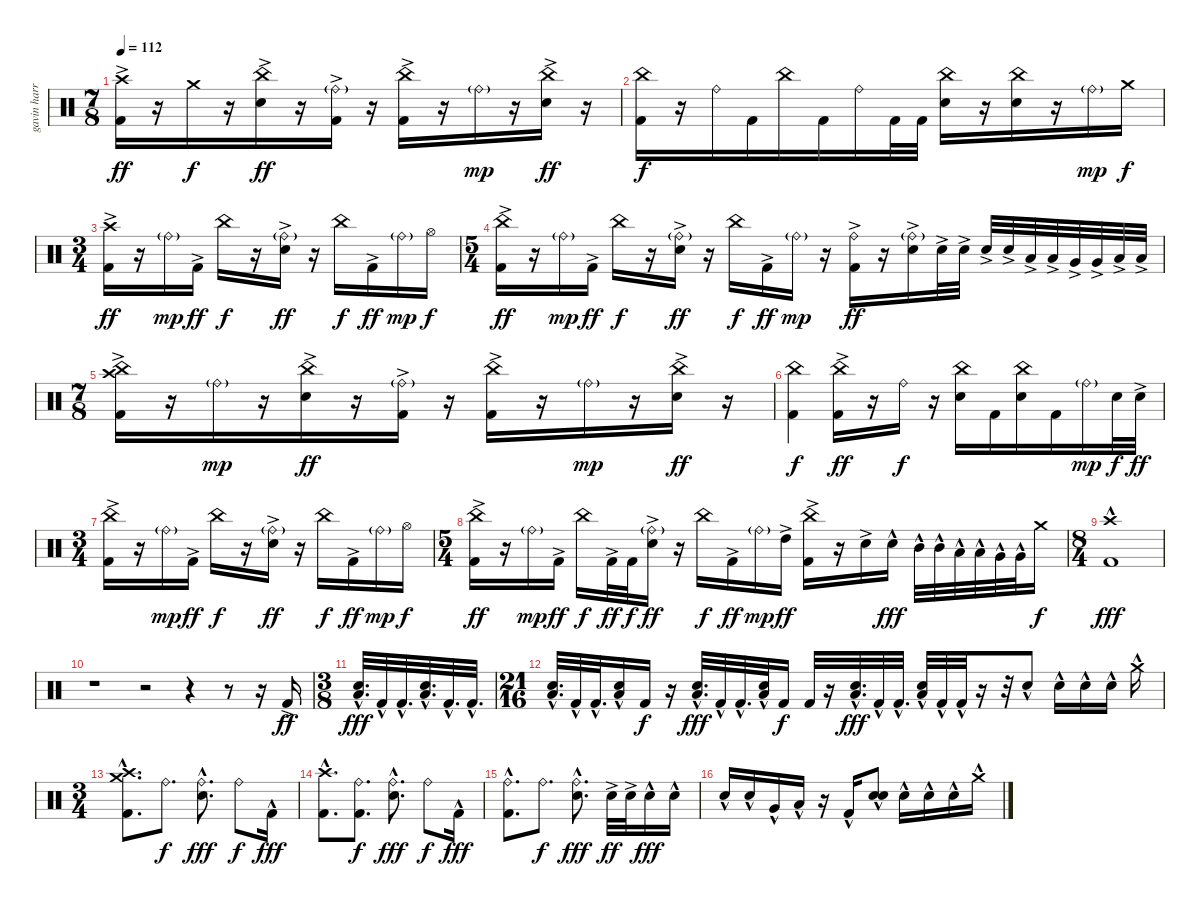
\track ("gavin harrison" "gavin harr") {instrument percussion}
\staff {score}
\articulation defaults
\ts (7 8)
\tempo 112
\clef neutral
\ks c
("Crash high (hit)" "Kick (hit) 2"{ac}).16{dy ff} r.16 "Crash medium (hit)".16{dy f} r.16 ("China (hit)" "Electric Snare (hit)"{ac}).16{dy ff} r.16 ("Ride (bell)"{g} "Kick (hit) 2"{ac}).16 r.16 ("China (hit)" "Kick (hit) 2"{ac}).16 r.16 "Ride (bell)"{g}.16{dy mp} r.16 ("China (hit)" "Electric Snare (hit)"{ac}).16{dy ff} r.16 |
("China (hit)" "Kick (hit) 2").16{dy f} r.16 "Ride (bell)".16 "Kick (hit) 2".16 "China (hit)".16 "Kick (hit) 2".16 "Ride (bell)".16 "Kick (hit) 2".32 "Kick (hit) 2".32 ("China (hit)" "Electric Snare (hit)").16 r.16 ("China (hit)" "Electric Snare (hit)").16 r.16 "Ride (bell)"{g}.16{dy mp} "Crash medium (hit)".16{dy f} |
\ts (3 4)
("Crash high (hit)" "Kick (hit) 2"{ac}).16{dy ff} r.16 "Ride (bell)"{g}.16{dy mp} "Kick (hit) 2"{ac}.16{dy ff} "China (hit)".16{dy f} r.16 ("Ride (bell)"{g} "Electric Snare (hit)"{ac}).16{dy ff} r.16 "China (hit)".16{dy f} "Kick (hit) 2"{ac}.16{dy ff} "Ride (bell)"{g}.16{dy mp} "Hi-Hat (open)".16{dy f} |
\ts (5 4)
("China (hit)" "Kick (hit) 2"{ac}).16{dy ff} r.16 "Ride (bell)"{g}.16{dy mp} "Kick (hit) 2"{ac}.16{dy ff} "China (hit)".16{dy f} r.16 ("Ride (bell)"{g} "Electric Snare (hit)"{ac}).16{dy ff} r.16 "China (hit)".16{dy f} "Kick (hit) 2"{ac}.16{dy ff} "Ride (bell)"{g}.16{dy mp} r.16 ("Ride (bell)" "Kick (hit) 2"{ac}).16{dy ff} r.16 ("Ride (bell)"{g} "Electric Snare (hit)"{ac}).16 "Electric Snare (hit)"{ac}.32 "Electric Snare (hit)"{ac}.32 "Electric Snare (hit)"{ac}.32 "Electric Snare (hit)"{ac}.32 "Low Tom (hit)"{ac}.32 "Low Tom (hit)"{ac}.32 "Very Low Tom (hit)"{ac}.32 "Very Low Tom (hit)"{ac}.32 "Low Floor Tom (hit)"{ac}.32 "Low Floor Tom (hit)"{ac}.32 |
\ts (7 8)
("China (hit)" "Crash high (hit)" "Kick (hit) 2"{ac}).16 r.16 "Ride (bell)"{g}.16{dy mp} r.16 ("China (hit)" "Electric Snare (hit)"{ac}).16{dy ff} r.16 ("Ride (bell)"{g} "Kick (hit) 2"{ac}).16 r.16 ("China (hit)" "Kick (hit) 2"{ac}).16 r.16 "Ride (bell)"{g}.16{dy mp} r.16 ("China (hit)" "Electric Snare (hit)"{ac}).16{dy ff} r.16 |
("China (hit)" "Kick (hit) 2").4{dy f} ("China (hit)" "Kick (hit) 2"{ac}).16{dy ff} r.16 "Ride (bell)".16{dy f} r.16 ("China (hit)" "Electric Snare (hit)").16 "Kick (hit) 2".16 ("China (hit)" "Electric Snare (hit)").16 "Kick (hit) 2".16 "Ride (bell)"{g}.16{dy mp} "Electric Snare (hit)".32{dy f} "Electric Snare (hit)"{ac}.32{dy ff} |
\ts (3 4)
("China (hit)" "Kick (hit) 2"{ac}).16 r.16 "Ride (bell)"{g}.16{dy mp} "Kick (hit) 2"{ac}.16{dy ff} "China (hit)".16{dy f} r.16 ("Ride (bell)"{g} "Electric Snare (hit)"{ac}).16{dy ff} r.16 "China (hit)".16{dy f} "Kick (hit) 2"{ac}.16{dy ff} "Ride (bell)"{g}.16{dy mp} "Hi-Hat (open)".16{dy f} |
\ts (5 4)
("China (hit)" "Kick (hit) 2"{ac}).16{dy ff} r.16 "Ride (bell)"{g}.16{dy mp} "Kick (hit) 2"{ac}.16{dy ff} "China (hit)".16{dy f} "Kick (hit) 2"{ac}.32{dy ff} "Kick (hit) 2".32{dy f} ("Ride (bell)"{g} "Electric Snare (hit)"{ac}).16{dy ff} r.16 "China (hit)".16{dy f} "Kick (hit) 2"{ac}.16{dy ff} "Ride (bell)"{g}.16{dy mp} "High Tom (hit)"{ac}.16{dy ff} ("China (hit)" "Kick (hit) 2"{ac}).16 r.16 "Electric Snare (hit)"{ac}.16 "Electric Snare (hit)"{hac}.16{dy fff} "Mid Tom (hit)"{hac}.32 "Mid Tom (hit)"{hac}.32 "Low Tom (hit)"{hac}.32 "Low Tom (hit)"{hac}.32 "Very Low Tom (hit)"{hac}.32 "Very Low Tom (hit)"{hac}.32 "Crash medium (hit)".16{dy f} |
\ts (8 4)
("Crash high (hit)" "Kick (hit) 2"{hac}).1{dy fff} |
r.1 r.2 r.4 r.8 r.16 "Kick (hit) 2"{ac}.16{dy ff} |
\ts (3 8)
("Electric Snare (hit)"{hac} "Low Floor Tom (hit)"{hac}).32{d dy fff} "Kick (hit) 2"{hac}.32 "Kick (hit) 2"{hac}.32{d} ("Electric Snare (hit)"{hac} "Low Floor Tom (hit)"{hac}).32{d} "Kick (hit) 2"{hac}.32{d} "Kick (hit) 2"{hac}.32{d} |
\ts (21 16)
("Electric Snare (hit)"{hac} "Low Floor Tom (hit)"{hac}).32{d} "Kick (hit) 2"{hac}.32 "Kick (hit) 2"{hac}.32{d} ("Electric Snare (hit)"{hac} "Low Floor Tom (hit)"{hac}).16 "Kick (hit) 2".16{dy f} r.16 ("Electric Snare (hit)"{hac} "Low Floor Tom (hit)"{hac}).32{d dy fff} "Kick (hit) 2"{hac}.32 "Kick (hit) 2"{hac}.32{d} ("Electric Snare (hit)"{hac} "Low Floor Tom (hit)"{hac}).32 "Kick (hit) 2".16{dy f} "Kick (hit) 2".32 r.16 ("Electric Snare (hit)"{hac} "Low Floor Tom (hit)"{hac}).32{d dy fff} "Kick (hit) 2"{hac}.32 "Kick (hit) 2"{hac}.32{d} ("Electric Snare (hit)"{hac} "Low Floor Tom (hit)"{hac}).32 "Kick (hit) 2"{hac}.32 "Kick (hit) 2"{hac}.32 r.16 r.32 "Electric Snare (hit)"{hac}.8 "Electric Snare (hit)"{hac}.16 "Electric Snare (hit)"{hac}.16 "Electric Snare (hit)"{hac}.16 "Crash medium (hit)"{hac}.16 |
\ts (3 4)
("Crash high (hit)" "Crash medium (hit)" "Kick (hit) 2"{hac}).8{d} "Ride (bell)".8{d dy f} ("Ride (bell)" "Electric Snare (hit)"{hac}).8{d dy fff} "Ride (bell)".8{dy f} "Kick (hit) 2"{hac}.16{dy fff} |
("Crash high (hit)" "Kick (hit) 2"{hac}).8{d} ("Ride (bell)" "Kick (hit) 2").8{d dy f} ("Ride (bell)" "Electric Snare (hit)"{hac}).8{d dy fff} "Ride (bell)".8{dy f} "Kick (hit) 2"{hac}.16{dy fff} |
("Ride (bell)" "Kick (hit) 2"{hac}).8{d} "Ride (bell)".8{d dy f} ("Ride (bell)" "Electric Snare (hit)"{hac}).8{d dy fff} "Electric Snare (hit)"{ac}.32{dy ff} "Electric Snare (hit)"{ac}.32 "Electric Snare (hit)"{hac}.16{dy fff} "Electric Snare (hit)"{hac}.16 |
"Electric Snare (hit)"{hac}.16 "Electric Snare (hit)"{hac}.16 "Very Low Tom (hit)"{hac}.16 "Low Floor Tom (hit)"{hac}.16 r.16 "Kick (hit) 2"{hac}.16 ("Electric Snare (hit)"{hac} "Electric Snare (hit)"{hac}).8 "Electric Snare (hit)"{hac}.16 "Electric Snare (hit)"{hac}.16 "Electric Snare (hit)"{hac}.16 "Crash medium (hit)"{hac}.16
